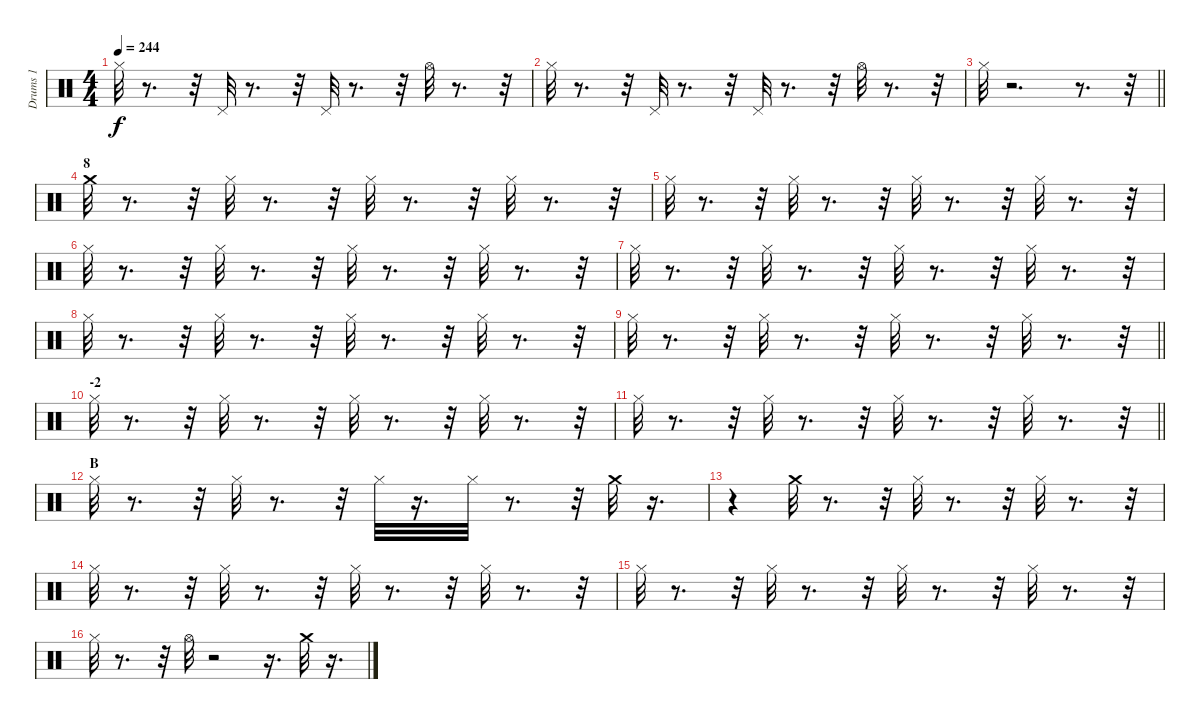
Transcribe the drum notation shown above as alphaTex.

\track ("Drums 1" "Drums 1") {instrument percussion}
\staff {score}
\articulation defaults
\ts (4 4)
\tempo 244
\clef neutral
\ks c "Hi-Hat (closed)".32{dy f}
r.8{d} r.32 "Pedal Hi-Hat (hit)".32 r.8{d} r.32 "Pedal Hi-Hat (hit)".32 r.8{d} r.32 "Hi-Hat (open)".32 r.8{d} r.32 |
"Hi-Hat (closed)".32 r.8{d} r.32 "Pedal Hi-Hat (hit)".32 r.8{d} r.32 "Pedal Hi-Hat (hit)".32 r.8{d} r.32 "Hi-Hat (open)".32 r.8{d} r.32 |
\barLineRight lightlight "Hi-Hat (closed)".32
r.2{d} r.8{d} r.32 |
\section ("" "8")
"Crash medium (hit)".32 r.8{d} r.32 "Hi-Hat (closed)".32 r.8{d} r.32 "Hi-Hat (closed)".32 r.8{d} r.32 "Hi-Hat (closed)".32 r.8{d} r.32 |
"Hi-Hat (closed)".32 r.8{d} r.32 "Hi-Hat (closed)".32 r.8{d} r.32 "Hi-Hat (closed)".32 r.8{d} r.32 "Hi-Hat (closed)".32 r.8{d} r.32 |
"Hi-Hat (closed)".32 r.8{d} r.32 "Hi-Hat (closed)".32 r.8{d} r.32 "Hi-Hat (closed)".32 r.8{d} r.32 "Hi-Hat (closed)".32 r.8{d} r.32 |
"Hi-Hat (closed)".32 r.8{d} r.32 "Hi-Hat (closed)".32 r.8{d} r.32 "Hi-Hat (closed)".32 r.8{d} r.32 "Hi-Hat (closed)".32 r.8{d} r.32 |
"Hi-Hat (closed)".32 r.8{d} r.32 "Hi-Hat (closed)".32 r.8{d} r.32 "Hi-Hat (closed)".32 r.8{d} r.32 "Hi-Hat (closed)".32 r.8{d} r.32 |
\barLineRight lightlight "Hi-Hat (closed)".32
r.8{d} r.32 "Hi-Hat (closed)".32 r.8{d} r.32 "Hi-Hat (closed)".32 r.8{d} r.32 "Hi-Hat (closed)".32 r.8{d} r.32 |
\section ("" "-2")
"Hi-Hat (closed)".32 r.8{d} r.32 "Hi-Hat (closed)".32 r.8{d} r.32 "Hi-Hat (closed)".32 r.8{d} r.32 "Hi-Hat (closed)".32 r.8{d} r.32 |
\barLineRight lightlight "Hi-Hat (closed)".32
r.8{d} r.32 "Hi-Hat (closed)".32 r.8{d} r.32 "Hi-Hat (closed)".32 r.8{d} r.32 "Hi-Hat (closed)".32 r.8{d} r.32 |
\section ("" "B")
"Hi-Hat (closed)".32 r.8{d} r.32 "Hi-Hat (closed)".32 r.8{d} r.32 "Hi-Hat (closed)".32 r.16{d} "Hi-Hat (closed)".32 r.8{d} r.32 "Crash medium (hit)".32 r.16{d} |
r.4 "Crash medium (hit)".32 r.8{d} r.32 "Hi-Hat (closed)".32 r.8{d} r.32 "Hi-Hat (closed)".32 r.8{d} r.32 |
"Hi-Hat (closed)".32 r.8{d} r.32 "Hi-Hat (closed)".32 r.8{d} r.32 "Hi-Hat (closed)".32 r.8{d} r.32 "Hi-Hat (closed)".32 r.8{d} r.32 |
"Hi-Hat (closed)".32 r.8{d} r.32 "Hi-Hat (closed)".32 r.8{d} r.32 "Hi-Hat (closed)".32 r.8{d} r.32 "Hi-Hat (closed)".32 r.8{d} r.32 |
"Hi-Hat (closed)".32 r.8{d} r.32 "Hi-Hat (open)".32 r.2 r.16{d} "Crash medium (hit)".32 r.16{d}
